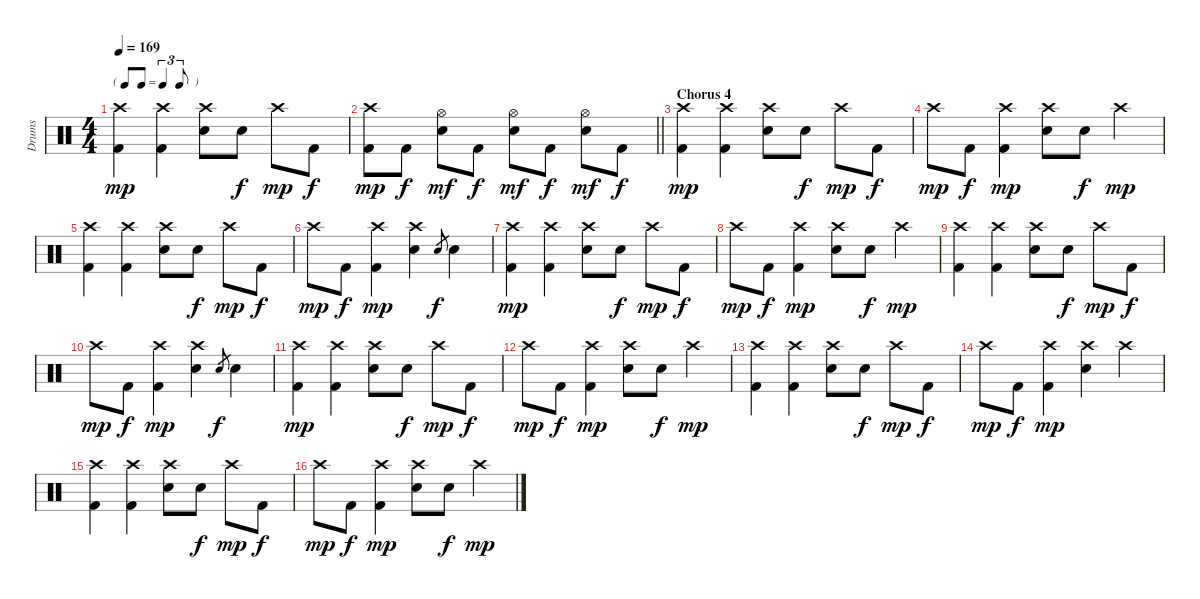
\track ("Drums" "Drums") {instrument percussion}
\staff {score}
\articulation defaults
\ts (4 4)
\tf triplet8th
\tempo 169
\clef neutral
\ks c
("Crash high (hit)" "Kick (hit) 2").4{dy mp} ("Crash high (hit)" "Kick (hit) 2").4 ("Crash high (hit)" "Snare (hit) 2").8 "Snare (hit) 2".8{dy f} "Crash high (hit)".8{dy mp} "Kick (hit) 2".8{dy f} |
\barLineRight lightlight
("Crash high (hit)" "Kick (hit) 2").8{dy mp} "Kick (hit) 2".8{dy f} ("Hi-Hat (open)" "Snare (hit) 2").8{dy mf} "Kick (hit) 2".8{dy f} ("Hi-Hat (open)" "Snare (hit) 2").8{dy mf} "Kick (hit) 2".8{dy f} ("Hi-Hat (open)" "Snare (hit) 2").8{dy mf} "Kick (hit) 2".8{dy f} |
\section ("" "Chorus 4")
("Crash high (hit)" "Kick (hit) 2").4{dy mp} ("Crash high (hit)" "Kick (hit) 2").4 ("Crash high (hit)" "Snare (hit) 2").8 "Snare (hit) 2".8{dy f} "Crash high (hit)".8{dy mp} "Kick (hit) 2".8{dy f} |
"Crash high (hit)".8{dy mp} "Kick (hit) 2".8{dy f} ("Crash high (hit)" "Kick (hit) 2").4{dy mp} ("Crash high (hit)" "Snare (hit) 2").8 "Snare (hit) 2".8{dy f} "Crash high (hit)".4{dy mp} |
("Crash high (hit)" "Kick (hit) 2").4 ("Crash high (hit)" "Kick (hit) 2").4 ("Crash high (hit)" "Snare (hit) 2").8 "Snare (hit) 2".8{dy f} "Crash high (hit)".8{dy mp} "Kick (hit) 2".8{dy f} |
"Crash high (hit)".8{dy mp} "Kick (hit) 2".8{dy f} ("Crash high (hit)" "Kick (hit) 2").4{dy mp} ("Crash high (hit)" "Snare (hit) 2").4 "Snare (hit) 2".8{gr dy f} "Snare (hit) 2".4 |
("Crash high (hit)" "Kick (hit) 2").4{dy mp} ("Crash high (hit)" "Kick (hit) 2").4 ("Crash high (hit)" "Snare (hit) 2").8 "Snare (hit) 2".8{dy f} "Crash high (hit)".8{dy mp} "Kick (hit) 2".8{dy f} |
"Crash high (hit)".8{dy mp} "Kick (hit) 2".8{dy f} ("Crash high (hit)" "Kick (hit) 2").4{dy mp} ("Crash high (hit)" "Snare (hit) 2").8 "Snare (hit) 2".8{dy f} "Crash high (hit)".4{dy mp} |
("Crash high (hit)" "Kick (hit) 2").4 ("Crash high (hit)" "Kick (hit) 2").4 ("Crash high (hit)" "Snare (hit) 2").8 "Snare (hit) 2".8{dy f} "Crash high (hit)".8{dy mp} "Kick (hit) 2".8{dy f} |
"Crash high (hit)".8{dy mp} "Kick (hit) 2".8{dy f} ("Crash high (hit)" "Kick (hit) 2").4{dy mp} ("Crash high (hit)" "Snare (hit) 2").4 "Snare (hit) 2".8{gr dy f} "Snare (hit) 2".4 |
("Crash high (hit)" "Kick (hit) 2").4{dy mp} ("Crash high (hit)" "Kick (hit) 2").4 ("Crash high (hit)" "Snare (hit) 2").8 "Snare (hit) 2".8{dy f} "Crash high (hit)".8{dy mp} "Kick (hit) 2".8{dy f} |
"Crash high (hit)".8{dy mp} "Kick (hit) 2".8{dy f} ("Crash high (hit)" "Kick (hit) 2").4{dy mp} ("Crash high (hit)" "Snare (hit) 2").8 "Snare (hit) 2".8{dy f} "Crash high (hit)".4{dy mp} |
("Crash high (hit)" "Kick (hit) 2").4 ("Crash high (hit)" "Kick (hit) 2").4 ("Crash high (hit)" "Snare (hit) 2").8 "Snare (hit) 2".8{dy f} "Crash high (hit)".8{dy mp} "Kick (hit) 2".8{dy f} |
"Crash high (hit)".8{dy mp} "Kick (hit) 2".8{dy f} ("Crash high (hit)" "Kick (hit) 2").4{dy mp} ("Crash high (hit)" "Snare (hit) 2").4 "Crash high (hit)".4 |
("Crash high (hit)" "Kick (hit) 2").4 ("Crash high (hit)" "Kick (hit) 2").4 ("Crash high (hit)" "Snare (hit) 2").8 "Snare (hit) 2".8{dy f} "Crash high (hit)".8{dy mp} "Kick (hit) 2".8{dy f} |
"Crash high (hit)".8{dy mp} "Kick (hit) 2".8{dy f} ("Crash high (hit)" "Kick (hit) 2").4{dy mp} ("Crash high (hit)" "Snare (hit) 2").8 "Snare (hit) 2".8{dy f} "Crash high (hit)".4{dy mp}
